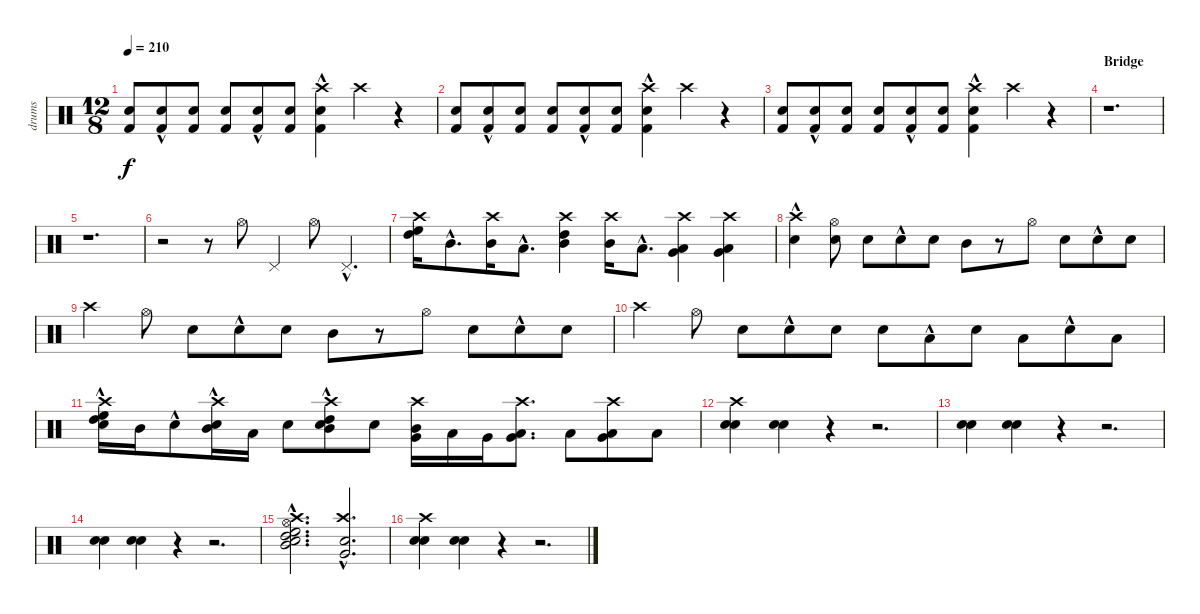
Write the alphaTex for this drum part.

\track ("drums" "drums") {instrument percussion}
\staff {score}
\articulation defaults
\ts (12 8)
\tempo 210
\clef neutral
\ks c
("Electric Snare (hit)" "Kick (hit) 2").8{dy f} ("Electric Snare (hit)"{hac} "Kick (hit) 2"{hac}).8 ("Electric Snare (hit)" "Kick (hit) 2").8 ("Electric Snare (hit)" "Kick (hit) 2").8 ("Electric Snare (hit)"{hac} "Kick (hit) 2"{hac}).8 ("Electric Snare (hit)" "Kick (hit) 2").8 ("Electric Snare (hit)"{hac} "Kick (hit) 2"{hac} "Crash high (hit)").4 "Crash high (hit)".4 r.4 |
("Electric Snare (hit)" "Kick (hit) 2").8 ("Electric Snare (hit)"{hac} "Kick (hit) 2"{hac}).8 ("Electric Snare (hit)" "Kick (hit) 2").8 ("Electric Snare (hit)" "Kick (hit) 2").8 ("Electric Snare (hit)"{hac} "Kick (hit) 2"{hac}).8 ("Electric Snare (hit)" "Kick (hit) 2").8 ("Electric Snare (hit)"{hac} "Kick (hit) 2"{hac} "Crash high (hit)").4 "Crash high (hit)".4 r.4 |
("Electric Snare (hit)" "Kick (hit) 2").8 ("Electric Snare (hit)"{hac} "Kick (hit) 2"{hac}).8 ("Electric Snare (hit)" "Kick (hit) 2").8 ("Electric Snare (hit)" "Kick (hit) 2").8 ("Electric Snare (hit)"{hac} "Kick (hit) 2"{hac}).8 ("Electric Snare (hit)" "Kick (hit) 2").8 ("Electric Snare (hit)"{hac} "Kick (hit) 2"{hac} "Crash high (hit)").4 "Crash high (hit)".4 r.4 |
\section ("" "Bridge")
r.1{d} |
r.1{d} |
r.2 r.8 "Hi-Hat (open)".8 "Pedal Hi-Hat (hit)".4 "Hi-Hat (open)".8 "Pedal Hi-Hat (hit)"{hac}.4{d} |
("High Tom (hit)" "High Floor Tom (hit)" "Crash high (hit)").16 "Mid Tom (hit)"{hac}.8{d} ("Mid Tom (hit)" "Crash high (hit)").16 "Low Tom (hit)"{hac}.8{d} ("High Tom (hit)" "Crash high (hit)" "Mid Tom (hit)").4 ("Mid Tom (hit)" "Crash high (hit)").16 "Low Tom (hit)"{hac}.8{d} ("Low Tom (hit)" "Very Low Tom (hit)" "Crash high (hit)").4 ("Very Low Tom (hit)" "Crash high (hit)" "Low Floor Tom (hit)").4 |
("Crash high (hit)" "Electric Snare (hit)"{hac}).4 ("Electric Snare (hit)" "Hi-Hat (open)").8 "Electric Snare (hit)".8 "Snare (hit) 2"{hac}.8 "Electric Snare (hit)".8 "Mid Tom (hit)".8 r.8 "Hi-Hat (open)".8 "Electric Snare (hit)".8 "Electric Snare (hit)"{hac}.8 "Snare (hit) 2".8 |
"Crash high (hit)".4 "Hi-Hat (open)".8 "Electric Snare (hit)".8 "Electric Snare (hit)"{hac}.8 "Snare (hit) 2".8 "Mid Tom (hit)".8 r.8 "Hi-Hat (open)".8 "Electric Snare (hit)".8 "Electric Snare (hit)"{hac}.8 "Snare (hit) 2".8 |
"Crash high (hit)".4 "Hi-Hat (open)".8 "Electric Snare (hit)".8 "Electric Snare (hit)"{hac}.8 "Snare (hit) 2".8 "Electric Snare (hit)".8 "Low Floor Tom (hit)"{hac}.8 "Electric Snare (hit)".8 "Low Floor Tom (hit)".8 "Electric Snare (hit)"{hac}.8 "Low Floor Tom (hit)".8 |
("High Tom (hit)" "Electric Snare (hit)"{hac} "High Floor Tom (hit)" "Crash high (hit)").16 "Mid Tom (hit)".16 "Electric Snare (hit)"{hac}.8 ("Mid Tom (hit)" "Electric Snare (hit)"{hac} "Crash high (hit)").16 "Low Tom (hit)".16 "Snare (hit) 2".8 ("High Tom (hit)" "Snare (hit) 2"{hac} "Crash high (hit)" "Mid Tom (hit)").8 "Snare (hit) 2".8 ("Mid Tom (hit)" "Very Low Tom (hit)" "Crash high (hit)").16 "Low Tom (hit)".16 "Very Low Tom (hit)".16 ("Low Tom (hit)" "Very Low Tom (hit)" "Crash high (hit)").8{d} "Low Floor Tom (hit)".8 ("Very Low Tom (hit)" "Crash high (hit)" "Low Floor Tom (hit)").8 "Low Floor Tom (hit)".8 |
("Crash high (hit)" "Electric Snare (hit)" "Snare (hit) 2").4 ("Electric Snare (hit)" "Snare (hit) 2").4 r.4 r.2{d} |
("Electric Snare (hit)" "Snare (hit) 2").4 ("Electric Snare (hit)" "Snare (hit) 2").4 r.4 r.2{d} |
("Electric Snare (hit)" "Snare (hit) 2").4 ("Electric Snare (hit)" "Snare (hit) 2").4 r.4 r.2{d} |
("Mid Tom (hit)"{hac} "Electric Snare (hit)"{hac} "High Tom (hit)"{hac} "Hi-Hat (open)"{hac} "High Floor Tom (hit)"{hac} "Crash high (hit)").2{d} ("Very Low Tom (hit)"{hac} "Crash high (hit)"{hac} "Electric Snare (hit)"{hac}).2{d} |
("Crash high (hit)" "Electric Snare (hit)" "Snare (hit) 2").4 ("Electric Snare (hit)" "Snare (hit) 2").4 r.4 r.2{d}
